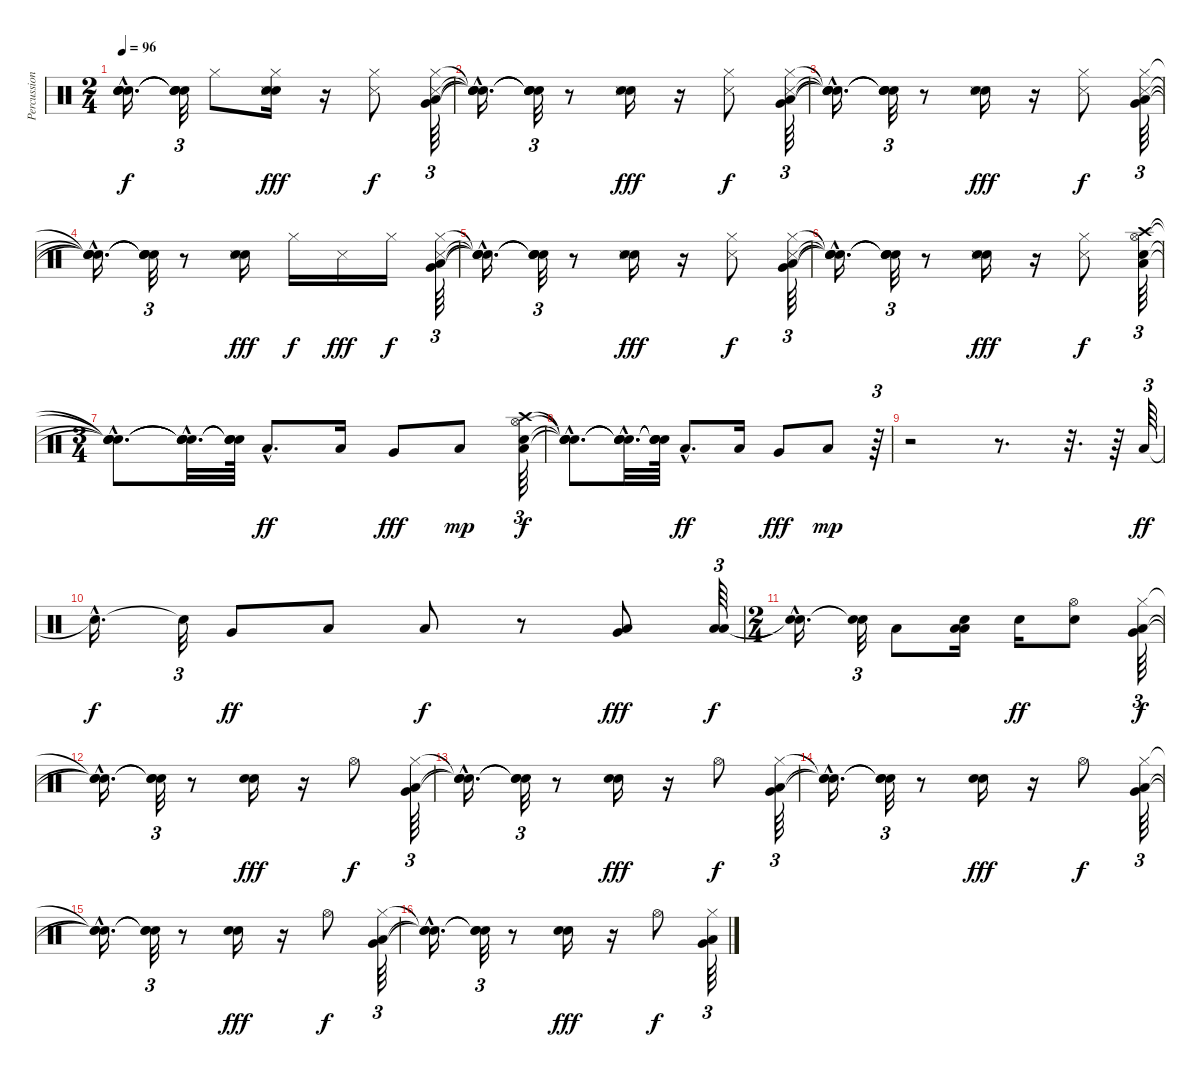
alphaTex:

\track ("Percussion" "Percussion") {instrument percussion}
\staff {score}
\articulation defaults
\ts (2 4)
\tempo 96
\clef neutral
\ks c
("Snare (hit)"{hac t} "Snare (hit)"{hac t} "Snare (hit)"{hac t} "Snare (hit)"{hac t}).16{d dy f} ("Snare (hit)"{t} "Snare (hit)"{t} "Snare (hit)"{t} "Snare (hit)"{t}).32{tu (3 2)} "Hi-Hat (closed)".8 ("Hi-Hat (closed)" "Electric Snare (hit)" "Snare (side stick) 3" "Snare (hit) 2").16{dy fff} r.16 ("Hi-Hat (closed)" "Snare (side stick) 3").8{dy f} ("Hi-Hat (closed)" "Snare (side stick) 3" "Very Low Tom (hit)" "Low Floor Tom (hit)").64{tu (3 2)} |
("Snare (hit)"{hac t} "Snare (hit)"{hac t} "Snare (hit)"{hac t} "Snare (hit)"{hac t}).16{d} ("Snare (hit)"{t} "Snare (hit)"{t} "Snare (hit)"{t} "Snare (hit)"{t}).32{tu (3 2)} r.8 ("Electric Snare (hit)" "Snare (side stick) 3" "Snare (hit) 2").16{dy fff} r.16 ("Hi-Hat (closed)" "Snare (side stick) 3").8{dy f} ("Hi-Hat (closed)" "Snare (side stick) 3" "Very Low Tom (hit)" "Low Floor Tom (hit)").64{tu (3 2)} |
("Snare (hit)"{hac t} "Snare (hit)"{hac t} "Snare (hit)"{hac t} "Snare (hit)"{hac t}).16{d} ("Snare (hit)"{t} "Snare (hit)"{t} "Snare (hit)"{t} "Snare (hit)"{t}).32{tu (3 2)} r.8 ("Electric Snare (hit)" "Snare (side stick) 3" "Snare (hit) 2").16{dy fff} r.16 ("Hi-Hat (closed)" "Snare (side stick) 3").8{dy f} ("Hi-Hat (closed)" "Snare (side stick) 3" "Very Low Tom (hit)" "Low Floor Tom (hit)").64{tu (3 2)} |
("Snare (hit)"{hac t} "Snare (hit)"{hac t} "Snare (hit)"{hac t} "Snare (hit)"{hac t}).16{d} ("Snare (hit)"{t} "Snare (hit)"{t} "Snare (hit)"{t} "Snare (hit)"{t}).32{tu (3 2)} r.8 ("Electric Snare (hit)" "Snare (side stick) 3" "Snare (hit) 2").16{dy fff} "Hi-Hat (closed)".16{dy f} "Snare (side stick) 3".16{dy fff} "Hi-Hat (closed)".16{dy f} ("Hi-Hat (closed)" "Snare (side stick) 3" "Very Low Tom (hit)" "Low Floor Tom (hit)").64{tu (3 2)} |
("Snare (hit)"{hac t} "Snare (hit)"{hac t} "Snare (hit)"{hac t} "Snare (hit)"{hac t}).16{d} ("Snare (hit)"{t} "Snare (hit)"{t} "Snare (hit)"{t} "Snare (hit)"{t}).32{tu (3 2)} r.8 ("Electric Snare (hit)" "Snare (side stick) 3" "Snare (hit) 2").16{dy fff} r.16 ("Hi-Hat (closed)" "Snare (side stick) 3").8{dy f} ("Hi-Hat (closed)" "Snare (side stick) 3" "Very Low Tom (hit)" "Low Floor Tom (hit)").64{tu (3 2)} |
("Snare (hit)"{hac t} "Snare (hit)"{hac t} "Snare (hit)"{hac t} "Snare (hit)"{hac t}).16{d} ("Snare (hit)"{t} "Snare (hit)"{t} "Snare (hit)"{t} "Snare (hit)"{t}).32{tu (3 2)} r.8 ("Electric Snare (hit)" "Snare (side stick) 3" "Snare (hit) 2").16{dy fff} r.16 ("Hi-Hat (closed)" "Snare (side stick) 3").8{dy f} ("Crash high (hit)" "Hi-Hat (open)" "Snare (hit) 2" "Low Floor Tom (hit)").64{tu (3 2)} |
\ts (3 4)
("Snare (hit)"{hac t} "Snare (hit)"{hac t} "Snare (hit)"{hac t} "Snare (hit)"{hac t}).8{d} ("Snare (hit)"{hac t} "Snare (hit)"{hac t} "Snare (hit)"{hac t} "Snare (hit)"{hac t}).32{d} ("Snare (hit)"{t} "Snare (hit)"{t} "Snare (hit)"{t} "Snare (hit)"{t}).64 "Low Tom (hit)"{hac}.8{d dy ff} "Low Tom (hit)".16 "Very Low Tom (hit)".8{dy fff} "Low Floor Tom (hit)".8{dy mp} ("Crash high (hit)" "Hi-Hat (open)" "Snare (hit) 2" "Low Floor Tom (hit)").64{tu (3 2) dy f} |
("Snare (hit)"{hac t} "Snare (hit)"{hac t} "Snare (hit)"{hac t} "Snare (hit)"{hac t}).8{d} ("Snare (hit)"{hac t} "Snare (hit)"{hac t} "Snare (hit)"{hac t} "Snare (hit)"{hac t}).32{d} ("Snare (hit)"{t} "Snare (hit)"{t} "Snare (hit)"{t} "Snare (hit)"{t}).64 "Low Tom (hit)"{hac}.8{d dy ff} "Low Tom (hit)".16 "Very Low Tom (hit)".8{dy fff} "Low Floor Tom (hit)".8{dy mp} r.64{tu (3 2)} |
r.2 r.8{d} r.32{d} r.64 "Low Tom (hit)".64{tu (3 2) dy ff} |
"Snare (hit)"{hac t}.16{d dy f} "Snare (hit)"{t}.32{tu (3 2)} "Very Low Tom (hit)".8{dy ff} "Low Tom (hit)".8 "Low Tom (hit)".8{dy f} r.8 ("Very Low Tom (hit)" "Low Tom (hit)").8{dy fff} ("Low Floor Tom (hit)" "Low Tom (hit)").64{tu (3 2) dy f} |
\ts (2 4)
("Snare (hit)"{hac t} "Snare (hit)"{hac t}).16{d} ("Snare (hit)"{t} "Snare (hit)"{t}).32{tu (3 2)} "Low Floor Tom (hit)".8 ("Snare (hit) 2" "Low Floor Tom (hit)" "Low Tom (hit)").16 "Electric Snare (hit)".16{dy ff} ("Hi-Hat (open)" "Electric Snare (hit)").8 ("Hi-Hat (closed)" "Very Low Tom (hit)" "Low Floor Tom (hit)").64{tu (3 2) dy f} |
("Snare (hit)"{hac t} "Snare (hit)"{hac t} "Snare (hit)"{hac t}).16{d} ("Snare (hit)"{t} "Snare (hit)"{t} "Snare (hit)"{t}).32{tu (3 2)} r.8 ("Electric Snare (hit)" "Snare (hit) 2").16{dy fff} r.16 "Hi-Hat (open)".8{dy f} ("Hi-Hat (closed)" "Very Low Tom (hit)" "Low Floor Tom (hit)").64{tu (3 2)} |
("Snare (hit)"{hac t} "Snare (hit)"{hac t} "Snare (hit)"{hac t}).16{d} ("Snare (hit)"{t} "Snare (hit)"{t} "Snare (hit)"{t}).32{tu (3 2)} r.8 ("Electric Snare (hit)" "Snare (hit) 2").16{dy fff} r.16 "Hi-Hat (open)".8{dy f} ("Hi-Hat (closed)" "Very Low Tom (hit)" "Low Floor Tom (hit)").64{tu (3 2)} |
("Snare (hit)"{hac t} "Snare (hit)"{hac t} "Snare (hit)"{hac t}).16{d} ("Snare (hit)"{t} "Snare (hit)"{t} "Snare (hit)"{t}).32{tu (3 2)} r.8 ("Electric Snare (hit)" "Snare (hit) 2").16{dy fff} r.16 "Hi-Hat (open)".8{dy f} ("Hi-Hat (closed)" "Very Low Tom (hit)" "Low Floor Tom (hit)").64{tu (3 2)} |
("Snare (hit)"{hac t} "Snare (hit)"{hac t} "Snare (hit)"{hac t}).16{d} ("Snare (hit)"{t} "Snare (hit)"{t} "Snare (hit)"{t}).32{tu (3 2)} r.8 ("Electric Snare (hit)" "Snare (hit) 2").16{dy fff} r.16 "Hi-Hat (open)".8{dy f} ("Hi-Hat (closed)" "Very Low Tom (hit)" "Low Floor Tom (hit)").64{tu (3 2)} |
("Snare (hit)"{hac t} "Snare (hit)"{hac t} "Snare (hit)"{hac t}).16{d} ("Snare (hit)"{t} "Snare (hit)"{t} "Snare (hit)"{t}).32{tu (3 2)} r.8 ("Electric Snare (hit)" "Snare (hit) 2").16{dy fff} r.16 "Hi-Hat (open)".8{dy f} ("Hi-Hat (closed)" "Very Low Tom (hit)" "Low Floor Tom (hit)").64{tu (3 2)}
